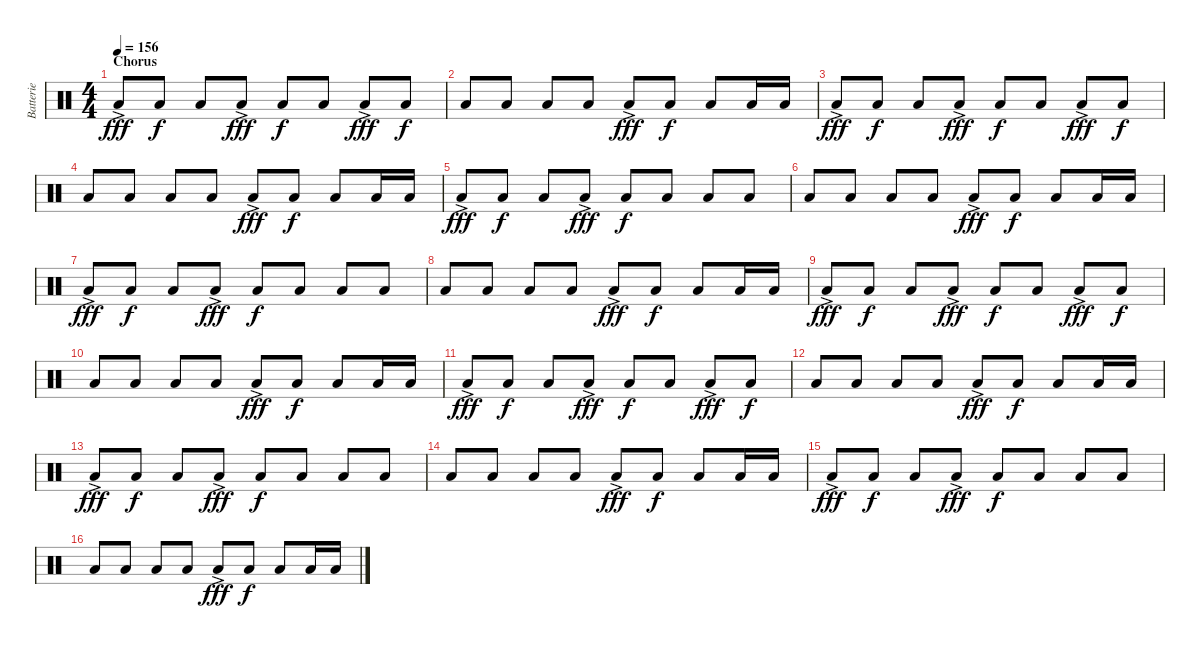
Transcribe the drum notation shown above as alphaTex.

\track ("Batterie" "Batterie") {instrument percussion}
\staff {score}
\articulation defaults
\ts (4 4)
\section ("" "Chorus")
\tempo 156
\clef neutral
\ks c "Low Floor Tom (hit)"{ac}.8{dy fff} "Low Floor Tom (hit)".8{dy f} "Low Floor Tom (hit)".8 "Low Floor Tom (hit)"{ac}.8{dy fff} "Low Floor Tom (hit)".8{dy f} "Low Floor Tom (hit)".8 "Low Floor Tom (hit)"{ac}.8{dy fff} "Low Floor Tom (hit)".8{dy f}
|
"Low Floor Tom (hit)".8 "Low Floor Tom (hit)".8 "Low Floor Tom (hit)".8 "Low Floor Tom (hit)".8 "Low Floor Tom (hit)"{ac}.8{dy fff} "Low Floor Tom (hit)".8{dy f} "Low Floor Tom (hit)".8 "Low Floor Tom (hit)".16 "Low Floor Tom (hit)".16 |
"Low Floor Tom (hit)"{ac}.8{dy fff} "Low Floor Tom (hit)".8{dy f} "Low Floor Tom (hit)".8 "Low Floor Tom (hit)"{ac}.8{dy fff} "Low Floor Tom (hit)".8{dy f} "Low Floor Tom (hit)".8 "Low Floor Tom (hit)"{ac}.8{dy fff} "Low Floor Tom (hit)".8{dy f} |
"Low Floor Tom (hit)".8 "Low Floor Tom (hit)".8 "Low Floor Tom (hit)".8 "Low Floor Tom (hit)".8 "Low Floor Tom (hit)"{ac}.8{dy fff} "Low Floor Tom (hit)".8{dy f} "Low Floor Tom (hit)".8 "Low Floor Tom (hit)".16 "Low Floor Tom (hit)".16 |
"Low Floor Tom (hit)"{ac}.8{dy fff} "Low Floor Tom (hit)".8{dy f} "Low Floor Tom (hit)".8 "Low Floor Tom (hit)"{ac}.8{dy fff} "Low Floor Tom (hit)".8{dy f} "Low Floor Tom (hit)".8 "Low Floor Tom (hit)".8 "Low Floor Tom (hit)".8 |
"Low Floor Tom (hit)".8 "Low Floor Tom (hit)".8 "Low Floor Tom (hit)".8 "Low Floor Tom (hit)".8 "Low Floor Tom (hit)"{ac}.8{dy fff} "Low Floor Tom (hit)".8{dy f} "Low Floor Tom (hit)".8 "Low Floor Tom (hit)".16 "Low Floor Tom (hit)".16 |
"Low Floor Tom (hit)"{ac}.8{dy fff} "Low Floor Tom (hit)".8{dy f} "Low Floor Tom (hit)".8 "Low Floor Tom (hit)"{ac}.8{dy fff} "Low Floor Tom (hit)".8{dy f} "Low Floor Tom (hit)".8 "Low Floor Tom (hit)".8 "Low Floor Tom (hit)".8 |
"Low Floor Tom (hit)".8 "Low Floor Tom (hit)".8 "Low Floor Tom (hit)".8 "Low Floor Tom (hit)".8 "Low Floor Tom (hit)"{ac}.8{dy fff} "Low Floor Tom (hit)".8{dy f} "Low Floor Tom (hit)".8 "Low Floor Tom (hit)".16 "Low Floor Tom (hit)".16 |
"Low Floor Tom (hit)"{ac}.8{dy fff} "Low Floor Tom (hit)".8{dy f} "Low Floor Tom (hit)".8 "Low Floor Tom (hit)"{ac}.8{dy fff} "Low Floor Tom (hit)".8{dy f} "Low Floor Tom (hit)".8 "Low Floor Tom (hit)"{ac}.8{dy fff} "Low Floor Tom (hit)".8{dy f} |
"Low Floor Tom (hit)".8 "Low Floor Tom (hit)".8 "Low Floor Tom (hit)".8 "Low Floor Tom (hit)".8 "Low Floor Tom (hit)"{ac}.8{dy fff} "Low Floor Tom (hit)".8{dy f} "Low Floor Tom (hit)".8 "Low Floor Tom (hit)".16 "Low Floor Tom (hit)".16 |
"Low Floor Tom (hit)"{ac}.8{dy fff} "Low Floor Tom (hit)".8{dy f} "Low Floor Tom (hit)".8 "Low Floor Tom (hit)"{ac}.8{dy fff} "Low Floor Tom (hit)".8{dy f} "Low Floor Tom (hit)".8 "Low Floor Tom (hit)"{ac}.8{dy fff} "Low Floor Tom (hit)".8{dy f} |
"Low Floor Tom (hit)".8 "Low Floor Tom (hit)".8 "Low Floor Tom (hit)".8 "Low Floor Tom (hit)".8 "Low Floor Tom (hit)"{ac}.8{dy fff} "Low Floor Tom (hit)".8{dy f} "Low Floor Tom (hit)".8 "Low Floor Tom (hit)".16 "Low Floor Tom (hit)".16 |
"Low Floor Tom (hit)"{ac}.8{dy fff} "Low Floor Tom (hit)".8{dy f} "Low Floor Tom (hit)".8 "Low Floor Tom (hit)"{ac}.8{dy fff} "Low Floor Tom (hit)".8{dy f} "Low Floor Tom (hit)".8 "Low Floor Tom (hit)".8 "Low Floor Tom (hit)".8 |
"Low Floor Tom (hit)".8 "Low Floor Tom (hit)".8 "Low Floor Tom (hit)".8 "Low Floor Tom (hit)".8 "Low Floor Tom (hit)"{ac}.8{dy fff} "Low Floor Tom (hit)".8{dy f} "Low Floor Tom (hit)".8 "Low Floor Tom (hit)".16 "Low Floor Tom (hit)".16 |
"Low Floor Tom (hit)"{ac}.8{dy fff} "Low Floor Tom (hit)".8{dy f} "Low Floor Tom (hit)".8 "Low Floor Tom (hit)"{ac}.8{dy fff} "Low Floor Tom (hit)".8{dy f} "Low Floor Tom (hit)".8 "Low Floor Tom (hit)".8 "Low Floor Tom (hit)".8 |
"Low Floor Tom (hit)".8 "Low Floor Tom (hit)".8 "Low Floor Tom (hit)".8 "Low Floor Tom (hit)".8 "Low Floor Tom (hit)"{ac}.8{dy fff} "Low Floor Tom (hit)".8{dy f} "Low Floor Tom (hit)".8 "Low Floor Tom (hit)".16 "Low Floor Tom (hit)".16
